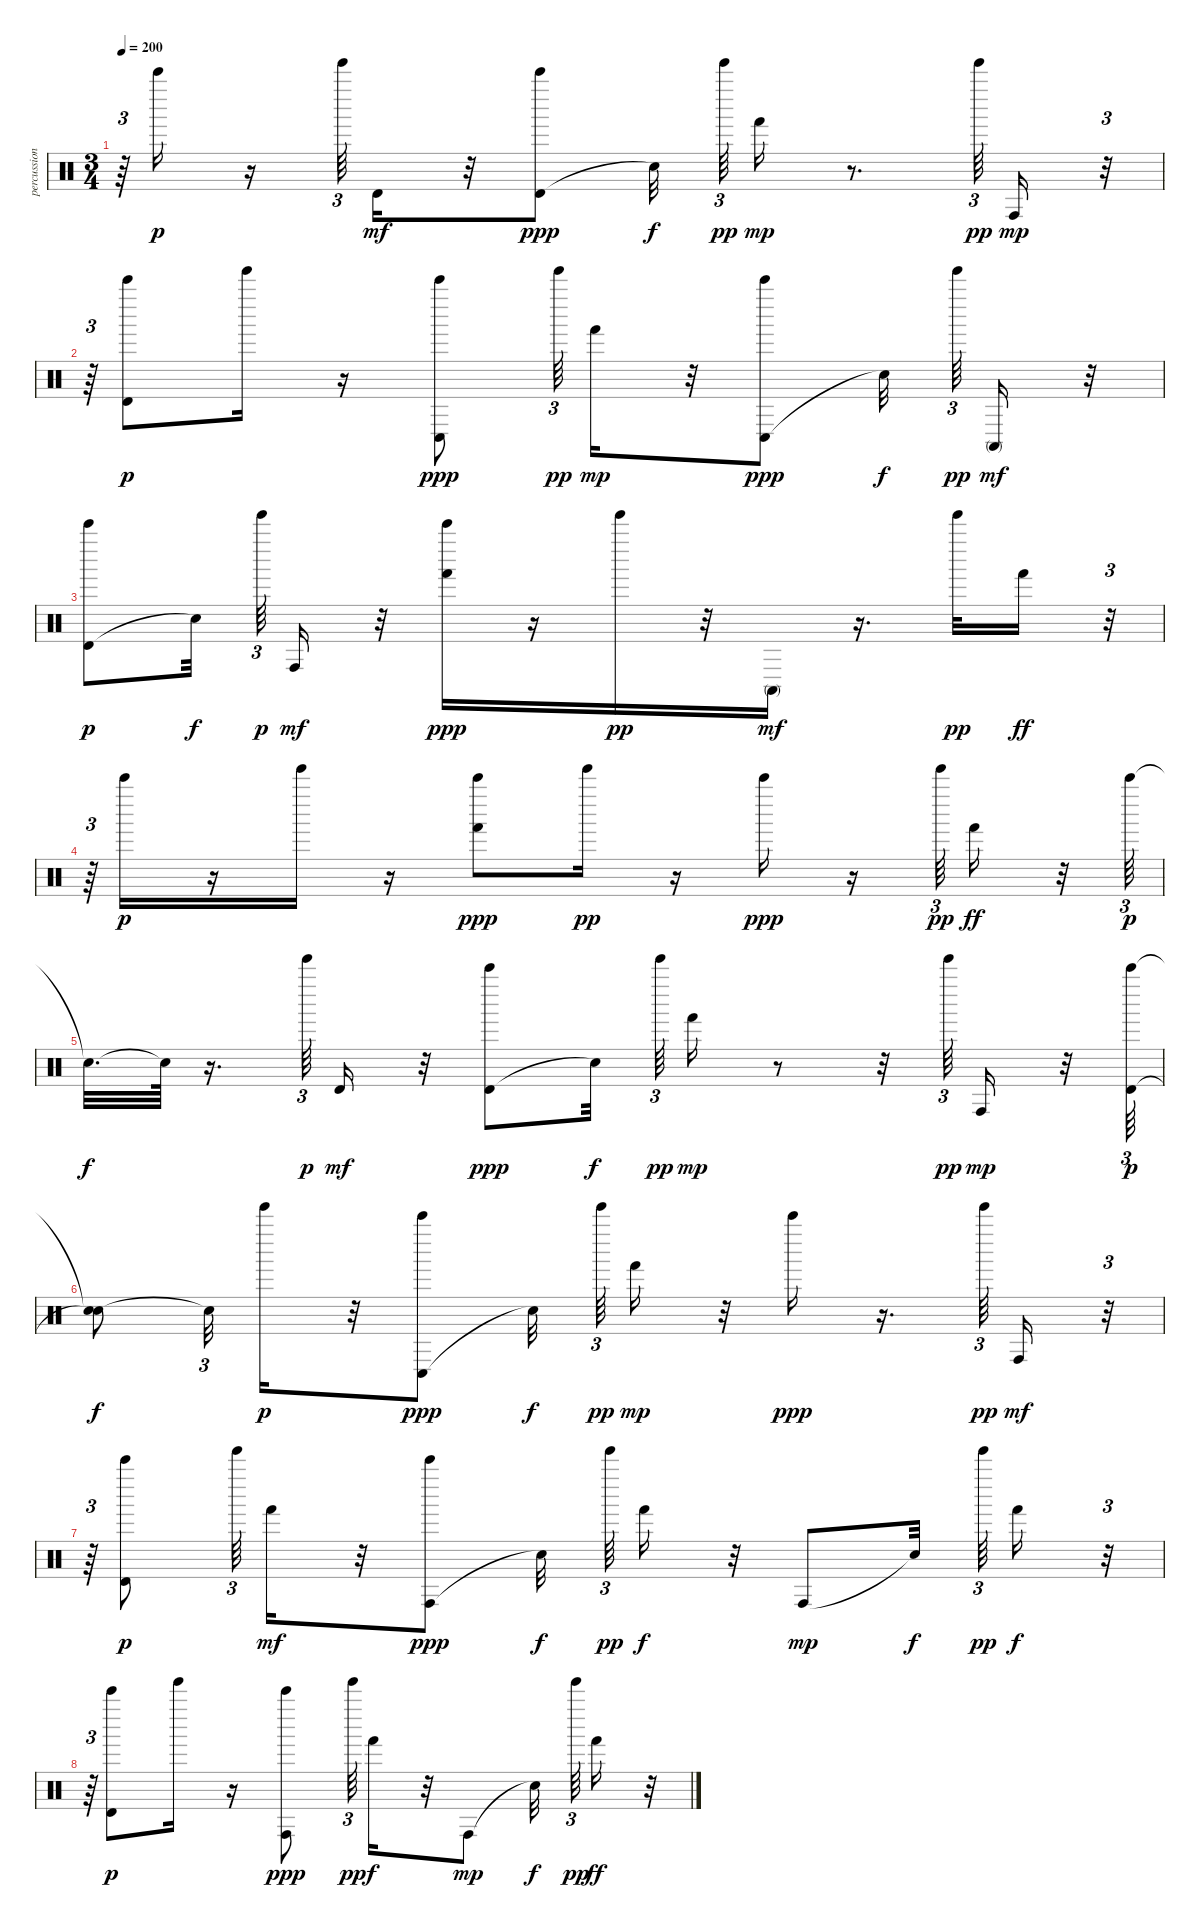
\track ("percussion" "percussion") {instrument percussion}
\staff {score}
\articulation defaults
\ts (3 4)
\tempo 200
\clef neutral
\ks c
r.64{tu (3 2) dy ff} "Bell Tree (hit)".16{dy p} r.16 "Tinkle Bell (hit)".64{tu (3 2)} "Timbale high (hit)".16{dy mf} r.32 ("Timbale high (hit)" "Bell Tree (hit)").8{dy ppp} "Snare (hit)"{t}.32{dy f} "Tinkle Bell (hit)".64{tu (3 2) dy pp} "Hand (hit)".16{dy mp} r.8{d} "Tinkle Bell (hit)".64{tu (3 2) dy pp} "Conga high (hit)".16{dy mp} r.32{tu (3 2)} |
r.64{tu (3 2)} ("Timbale high (hit)" "Bell Tree (hit)").8{dy p} "Tinkle Bell (hit)".16 r.16 ("Conga low (hit)" "Bell Tree (hit)").8{dy ppp} "Tinkle Bell (hit)".64{tu (3 2) dy pp} "Hand (hit)".16{dy mp} r.32 ("Conga low (hit)" "Bell Tree (hit)").8{dy ppp} "Snare (hit)"{t}.32{dy f} "Tinkle Bell (hit)".64{tu (3 2) dy pp} "Conga high (mute)".16{dy mf} r.32 |
("Timbale high (hit)" "Bell Tree (hit)").8{dy p} "Snare (hit)"{t}.32{dy f} "Tinkle Bell (hit)".64{tu (3 2) dy p} "Conga high (hit)".16{dy mf} r.32 ("Hand (hit)" "Bell Tree (hit)").16{dy ppp} r.16 "Tinkle Bell (hit)".16{dy pp} r.32 "Conga high (mute)".16{dy mf} r.16{d} "Tinkle Bell (hit)".32{dy pp} "Hand (hit)".16{dy ff} r.32{tu (3 2)} |
r.64{tu (3 2)} "Bell Tree (hit)".16{dy p} r.16 "Tinkle Bell (hit)".16 r.16 ("Hand (hit)" "Bell Tree (hit)").8{dy ppp} "Tinkle Bell (hit)".16{dy pp} r.16 "Bell Tree (hit)".16{dy ppp} r.16 "Tinkle Bell (hit)".64{tu (3 2) dy pp} "Hand (hit)".16{dy ff} r.32 "Bell Tree (hit)".64{tu (3 2) dy p} |
"Snare (hit)"{t}.32{d dy f} "Snare (hit)"{t}.64 r.16{d} "Tinkle Bell (hit)".64{tu (3 2) dy p} "Timbale high (hit)".16{dy mf} r.32 ("Timbale high (hit)" "Bell Tree (hit)").8{dy ppp} "Snare (hit)"{t}.32{dy f} "Tinkle Bell (hit)".64{tu (3 2) dy pp} "Hand (hit)".16{dy mp} r.8 r.32 "Tinkle Bell (hit)".64{tu (3 2) dy pp} "Conga high (hit)".16{dy mp} r.32 ("Timbale high (hit)" "Bell Tree (hit)").64{tu (3 2) dy p} |
("Snare (hit)"{t} "Snare (hit)"{t}).8{dy f} "Snare (hit)"{t}.32{tu (3 2)} "Tinkle Bell (hit)".16{dy p} r.32 ("Conga low (hit)" "Bell Tree (hit)").8{dy ppp} "Snare (hit)"{t}.32{dy f} "Tinkle Bell (hit)".64{tu (3 2) dy pp} "Hand (hit)".16{dy mp} r.32 "Bell Tree (hit)".16{dy ppp} r.16{d} "Tinkle Bell (hit)".64{tu (3 2) dy pp} "Conga high (hit)".16{dy mf} r.32{tu (3 2)} |
r.64{tu (3 2)} ("Timbale high (hit)" "Bell Tree (hit)").8{dy p} "Tinkle Bell (hit)".64{tu (3 2)} "Hand (hit)".16{dy mf} r.32 ("Conga high (hit)" "Bell Tree (hit)").8{dy ppp} "Snare (hit)"{t}.32{dy f} "Tinkle Bell (hit)".64{tu (3 2) dy pp} "Hand (hit)".16{dy f} r.32 "Conga high (hit)".8{dy mp} "Snare (hit)"{t}.32{dy f} "Tinkle Bell (hit)".64{tu (3 2) dy pp} "Hand (hit)".16{dy f} r.32{tu (3 2)} |
r.64{tu (3 2)} ("Timbale high (hit)" "Bell Tree (hit)").8{dy p} "Tinkle Bell (hit)".16 r.16 ("Conga high (hit)" "Bell Tree (hit)").8{dy ppp} "Tinkle Bell (hit)".64{tu (3 2) dy pp} "Hand (hit)".16{dy f} r.32 "Conga high (hit)".8{dy mp} "Snare (hit)"{t}.32{dy f} "Tinkle Bell (hit)".64{tu (3 2) dy pp} "Hand (hit)".16{dy ff} r.32
